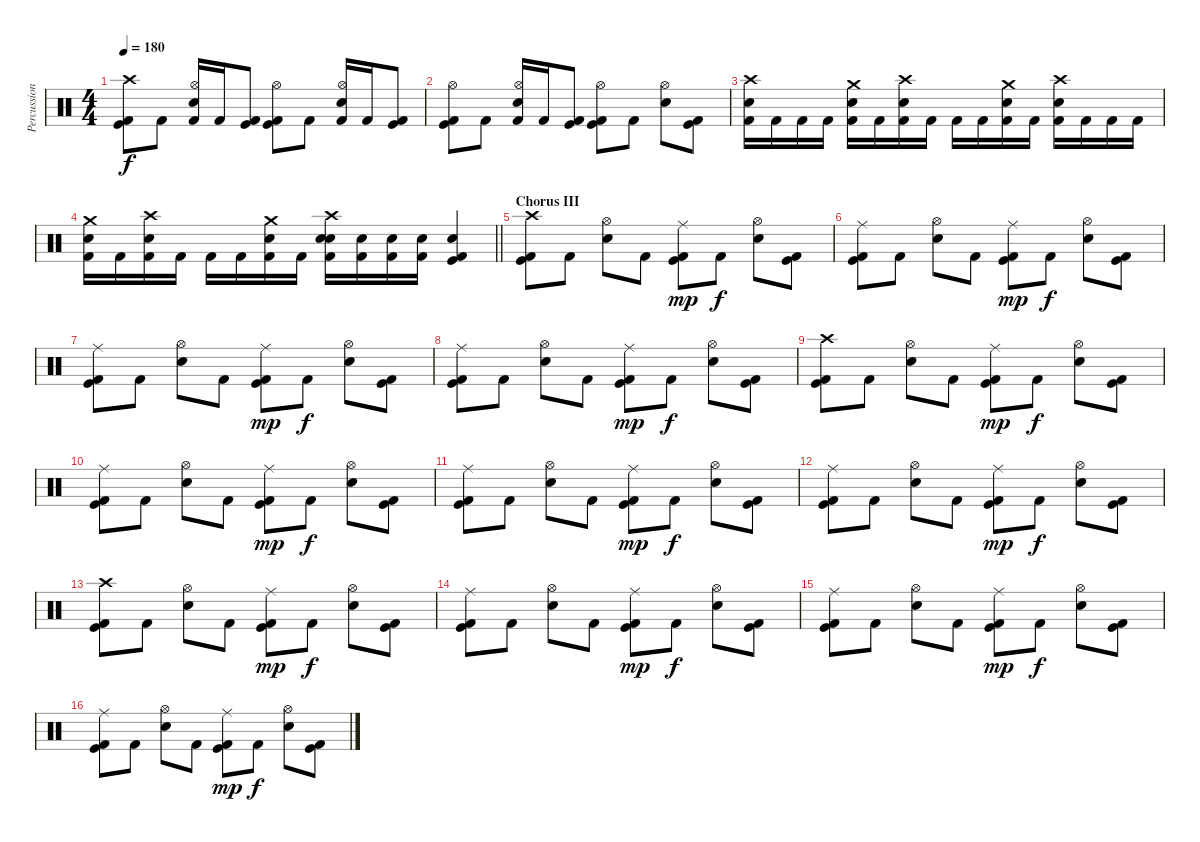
\track ("Percussion" "Percussion") {instrument percussion}
\staff {score}
\articulation defaults
\ts (4 4)
\tempo 180
\clef neutral
\ks c
("Crash high (hit)" "Kick (hit)" "Kick (hit) 2").8{dy f} "Kick (hit) 2".8 ("Hi-Hat (open)" "Snare (hit) 2" "Kick (hit) 2").16 "Kick (hit) 2".16 ("Kick (hit)" "Kick (hit) 2").8 ("Hi-Hat (open)" "Kick (hit)" "Kick (hit) 2").8 "Kick (hit) 2".8 ("Hi-Hat (open)" "Snare (hit) 2" "Kick (hit) 2").16 "Kick (hit) 2".16 ("Kick (hit)" "Kick (hit) 2").8 |
("Hi-Hat (open)" "Kick (hit)" "Kick (hit) 2").8 "Kick (hit) 2".8 ("Hi-Hat (open)" "Snare (hit) 2" "Kick (hit) 2").16 "Kick (hit) 2".16 ("Kick (hit)" "Kick (hit) 2").8 ("Hi-Hat (open)" "Kick (hit)" "Kick (hit) 2").8 "Kick (hit) 2".8 ("Hi-Hat (open)" "Snare (hit) 2").8 ("Kick (hit)" "Kick (hit) 2").8 |
("Crash high (hit)" "Snare (hit) 2" "Kick (hit) 2").16 "Kick (hit) 2".16 "Kick (hit) 2".16 "Kick (hit) 2".16 ("Crash medium (hit)" "Snare (hit) 2" "Kick (hit) 2").16 "Kick (hit) 2".16 ("Crash high (hit)" "Snare (hit) 2" "Kick (hit) 2").16 "Kick (hit) 2".16 "Kick (hit) 2".16 "Kick (hit) 2".16 ("Crash medium (hit)" "Snare (hit) 2" "Kick (hit) 2").16 "Kick (hit) 2".16 ("Crash high (hit)" "Snare (hit) 2" "Kick (hit) 2").16 "Kick (hit) 2".16 "Kick (hit) 2".16 "Kick (hit) 2".16 |
\barLineRight lightlight
("Crash medium (hit)" "Snare (hit) 2" "Kick (hit) 2").16 "Kick (hit) 2".16 ("Crash high (hit)" "Snare (hit) 2" "Kick (hit) 2").16 "Kick (hit) 2".16 "Kick (hit) 2".16 "Kick (hit) 2".16 ("Crash medium (hit)" "Snare (hit) 2" "Kick (hit) 2").16 "Kick (hit) 2".16 ("Crash high (hit)" "Snare (hit) 2" "Electric Snare (hit)" "Kick (hit) 2").16 ("Electric Snare (hit)" "Kick (hit) 2").16 ("Electric Snare (hit)" "Kick (hit) 2").16 ("Electric Snare (hit)" "Kick (hit) 2").16 ("Snare (hit) 2" "Kick (hit)" "Kick (hit) 2").4 |
\section ("" "Chorus III")
("Crash high (hit)" "Kick (hit)" "Kick (hit) 2").8 "Kick (hit) 2".8 ("Hi-Hat (open)" "Snare (hit) 2").8 "Kick (hit) 2".8 ("Ride (middle)" "Kick (hit)" "Kick (hit) 2").8{dy mp} "Kick (hit) 2".8{dy f} ("Hi-Hat (open)" "Snare (hit) 2").8 ("Kick (hit)" "Kick (hit) 2").8 |
("Ride (middle)" "Kick (hit)" "Kick (hit) 2").8 "Kick (hit) 2".8 ("Hi-Hat (open)" "Snare (hit) 2").8 "Kick (hit) 2".8 ("Ride (middle)" "Kick (hit)" "Kick (hit) 2").8{dy mp} "Kick (hit) 2".8{dy f} ("Hi-Hat (open)" "Snare (hit) 2").8 ("Kick (hit)" "Kick (hit) 2").8 |
("Ride (middle)" "Kick (hit)" "Kick (hit) 2").8 "Kick (hit) 2".8 ("Hi-Hat (open)" "Snare (hit) 2").8 "Kick (hit) 2".8 ("Ride (middle)" "Kick (hit)" "Kick (hit) 2").8{dy mp} "Kick (hit) 2".8{dy f} ("Hi-Hat (open)" "Snare (hit) 2").8 ("Kick (hit)" "Kick (hit) 2").8 |
("Ride (middle)" "Kick (hit)" "Kick (hit) 2").8 "Kick (hit) 2".8 ("Hi-Hat (open)" "Snare (hit) 2").8 "Kick (hit) 2".8 ("Ride (middle)" "Kick (hit)" "Kick (hit) 2").8{dy mp} "Kick (hit) 2".8{dy f} ("Hi-Hat (open)" "Snare (hit) 2").8 ("Kick (hit)" "Kick (hit) 2").8 |
("Crash high (hit)" "Kick (hit)" "Kick (hit) 2").8 "Kick (hit) 2".8 ("Hi-Hat (open)" "Snare (hit) 2").8 "Kick (hit) 2".8 ("Ride (middle)" "Kick (hit)" "Kick (hit) 2").8{dy mp} "Kick (hit) 2".8{dy f} ("Hi-Hat (open)" "Snare (hit) 2").8 ("Kick (hit)" "Kick (hit) 2").8 |
("Ride (middle)" "Kick (hit)" "Kick (hit) 2").8 "Kick (hit) 2".8 ("Hi-Hat (open)" "Snare (hit) 2").8 "Kick (hit) 2".8 ("Ride (middle)" "Kick (hit)" "Kick (hit) 2").8{dy mp} "Kick (hit) 2".8{dy f} ("Hi-Hat (open)" "Snare (hit) 2").8 ("Kick (hit)" "Kick (hit) 2").8 |
("Ride (middle)" "Kick (hit)" "Kick (hit) 2").8 "Kick (hit) 2".8 ("Hi-Hat (open)" "Snare (hit) 2").8 "Kick (hit) 2".8 ("Ride (middle)" "Kick (hit)" "Kick (hit) 2").8{dy mp} "Kick (hit) 2".8{dy f} ("Hi-Hat (open)" "Snare (hit) 2").8 ("Kick (hit)" "Kick (hit) 2").8 |
("Ride (middle)" "Kick (hit)" "Kick (hit) 2").8 "Kick (hit) 2".8 ("Hi-Hat (open)" "Snare (hit) 2").8 "Kick (hit) 2".8 ("Ride (middle)" "Kick (hit)" "Kick (hit) 2").8{dy mp} "Kick (hit) 2".8{dy f} ("Hi-Hat (open)" "Snare (hit) 2").8 ("Kick (hit)" "Kick (hit) 2").8 |
("Crash high (hit)" "Kick (hit)" "Kick (hit) 2").8 "Kick (hit) 2".8 ("Hi-Hat (open)" "Snare (hit) 2").8 "Kick (hit) 2".8 ("Ride (middle)" "Kick (hit)" "Kick (hit) 2").8{dy mp} "Kick (hit) 2".8{dy f} ("Hi-Hat (open)" "Snare (hit) 2").8 ("Kick (hit)" "Kick (hit) 2").8 |
("Ride (middle)" "Kick (hit)" "Kick (hit) 2").8 "Kick (hit) 2".8 ("Hi-Hat (open)" "Snare (hit) 2").8 "Kick (hit) 2".8 ("Ride (middle)" "Kick (hit)" "Kick (hit) 2").8{dy mp} "Kick (hit) 2".8{dy f} ("Hi-Hat (open)" "Snare (hit) 2").8 ("Kick (hit)" "Kick (hit) 2").8 |
("Ride (middle)" "Kick (hit)" "Kick (hit) 2").8 "Kick (hit) 2".8 ("Hi-Hat (open)" "Snare (hit) 2").8 "Kick (hit) 2".8 ("Ride (middle)" "Kick (hit)" "Kick (hit) 2").8{dy mp} "Kick (hit) 2".8{dy f} ("Hi-Hat (open)" "Snare (hit) 2").8 ("Kick (hit)" "Kick (hit) 2").8 |
("Ride (middle)" "Kick (hit)" "Kick (hit) 2").8 "Kick (hit) 2".8 ("Hi-Hat (open)" "Snare (hit) 2").8 "Kick (hit) 2".8 ("Ride (middle)" "Kick (hit)" "Kick (hit) 2").8{dy mp} "Kick (hit) 2".8{dy f} ("Hi-Hat (open)" "Snare (hit) 2").8 ("Kick (hit)" "Kick (hit) 2").8
